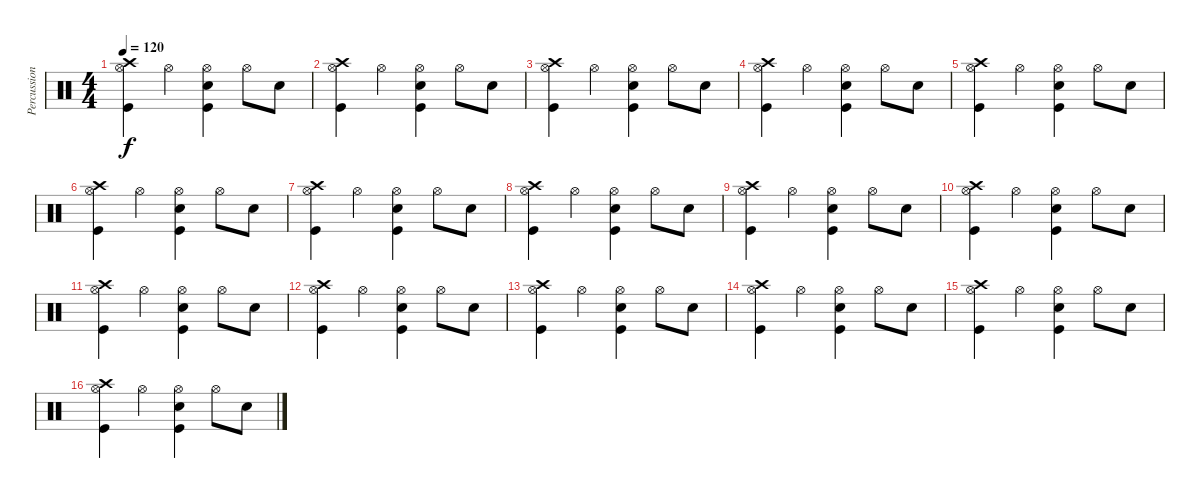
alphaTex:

\track ("Percussion" "Percussion") {instrument percussion}
\staff {score}
\articulation defaults
\ts (4 4)
\tempo 120
\clef neutral
\ks c
("Crash high (hit)" "Hi-Hat (open)" "Kick (hit)").4{dy f} "Hi-Hat (open)".4 ("Hi-Hat (open)" "Electric Snare (hit)" "Kick (hit)").4 "Hi-Hat (open)".8 "Electric Snare (hit)".8 |
("Crash high (hit)" "Hi-Hat (open)" "Kick (hit)").4 "Hi-Hat (open)".4 ("Hi-Hat (open)" "Electric Snare (hit)" "Kick (hit)").4 "Hi-Hat (open)".8 "Electric Snare (hit)".8 |
("Crash high (hit)" "Hi-Hat (open)" "Kick (hit)").4 "Hi-Hat (open)".4 ("Hi-Hat (open)" "Electric Snare (hit)" "Kick (hit)").4 "Hi-Hat (open)".8 "Electric Snare (hit)".8 |
("Crash high (hit)" "Hi-Hat (open)" "Kick (hit)").4 "Hi-Hat (open)".4 ("Hi-Hat (open)" "Electric Snare (hit)" "Kick (hit)").4 "Hi-Hat (open)".8 "Electric Snare (hit)".8 |
("Crash high (hit)" "Hi-Hat (open)" "Kick (hit)").4 "Hi-Hat (open)".4 ("Hi-Hat (open)" "Electric Snare (hit)" "Kick (hit)").4 "Hi-Hat (open)".8 "Electric Snare (hit)".8 |
("Crash high (hit)" "Hi-Hat (open)" "Kick (hit)").4 "Hi-Hat (open)".4 ("Hi-Hat (open)" "Electric Snare (hit)" "Kick (hit)").4 "Hi-Hat (open)".8 "Electric Snare (hit)".8 |
("Crash high (hit)" "Hi-Hat (open)" "Kick (hit)").4 "Hi-Hat (open)".4 ("Hi-Hat (open)" "Electric Snare (hit)" "Kick (hit)").4 "Hi-Hat (open)".8 "Electric Snare (hit)".8 |
("Crash high (hit)" "Hi-Hat (open)" "Kick (hit)").4 "Hi-Hat (open)".4 ("Hi-Hat (open)" "Electric Snare (hit)" "Kick (hit)").4 "Hi-Hat (open)".8 "Electric Snare (hit)".8 |
("Crash high (hit)" "Hi-Hat (open)" "Kick (hit)").4 "Hi-Hat (open)".4 ("Hi-Hat (open)" "Electric Snare (hit)" "Kick (hit)").4 "Hi-Hat (open)".8 "Electric Snare (hit)".8 |
("Crash high (hit)" "Hi-Hat (open)" "Kick (hit)").4 "Hi-Hat (open)".4 ("Hi-Hat (open)" "Electric Snare (hit)" "Kick (hit)").4 "Hi-Hat (open)".8 "Electric Snare (hit)".8 |
("Crash high (hit)" "Hi-Hat (open)" "Kick (hit)").4 "Hi-Hat (open)".4 ("Hi-Hat (open)" "Electric Snare (hit)" "Kick (hit)").4 "Hi-Hat (open)".8 "Electric Snare (hit)".8 |
("Crash high (hit)" "Hi-Hat (open)" "Kick (hit)").4 "Hi-Hat (open)".4 ("Hi-Hat (open)" "Electric Snare (hit)" "Kick (hit)").4 "Hi-Hat (open)".8 "Electric Snare (hit)".8 |
("Crash high (hit)" "Hi-Hat (open)" "Kick (hit)").4 "Hi-Hat (open)".4 ("Hi-Hat (open)" "Electric Snare (hit)" "Kick (hit)").4 "Hi-Hat (open)".8 "Electric Snare (hit)".8 |
("Crash high (hit)" "Hi-Hat (open)" "Kick (hit)").4 "Hi-Hat (open)".4 ("Hi-Hat (open)" "Electric Snare (hit)" "Kick (hit)").4 "Hi-Hat (open)".8 "Electric Snare (hit)".8 |
("Crash high (hit)" "Hi-Hat (open)" "Kick (hit)").4 "Hi-Hat (open)".4 ("Hi-Hat (open)" "Electric Snare (hit)" "Kick (hit)").4 "Hi-Hat (open)".8 "Electric Snare (hit)".8 |
("Crash high (hit)" "Hi-Hat (open)" "Kick (hit)").4 "Hi-Hat (open)".4 ("Hi-Hat (open)" "Electric Snare (hit)" "Kick (hit)").4 "Hi-Hat (open)".8 "Electric Snare (hit)".8
